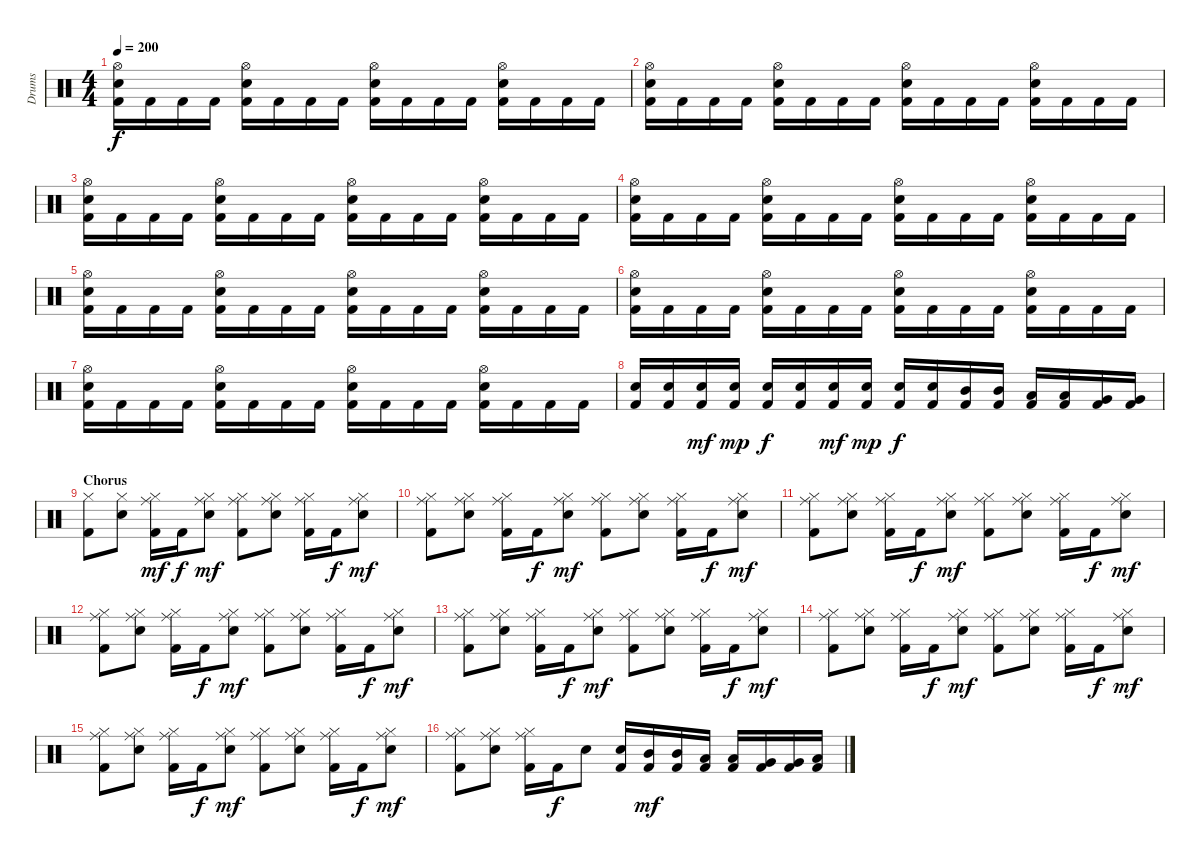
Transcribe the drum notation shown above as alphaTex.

\track ("Drums" "Drums") {instrument percussion}
\staff {score}
\articulation defaults
\ts (4 4)
\tempo 200
\clef neutral
\ks c
("Hi-Hat (open)" "Snare (hit) 2" "Kick (hit) 2").16{dy f} "Kick (hit) 2".16 "Kick (hit) 2".16 "Kick (hit) 2".16 ("Hi-Hat (open)" "Snare (hit) 2" "Kick (hit) 2").16 "Kick (hit) 2".16 "Kick (hit) 2".16 "Kick (hit) 2".16 ("Hi-Hat (open)" "Snare (hit) 2" "Kick (hit) 2").16 "Kick (hit) 2".16 "Kick (hit) 2".16 "Kick (hit) 2".16 ("Hi-Hat (open)" "Snare (hit) 2" "Kick (hit) 2").16 "Kick (hit) 2".16 "Kick (hit) 2".16 "Kick (hit) 2".16 |
("Hi-Hat (open)" "Snare (hit) 2" "Kick (hit) 2").16 "Kick (hit) 2".16 "Kick (hit) 2".16 "Kick (hit) 2".16 ("Hi-Hat (open)" "Snare (hit) 2" "Kick (hit) 2").16 "Kick (hit) 2".16 "Kick (hit) 2".16 "Kick (hit) 2".16 ("Hi-Hat (open)" "Snare (hit) 2" "Kick (hit) 2").16 "Kick (hit) 2".16 "Kick (hit) 2".16 "Kick (hit) 2".16 ("Hi-Hat (open)" "Snare (hit) 2" "Kick (hit) 2").16 "Kick (hit) 2".16 "Kick (hit) 2".16 "Kick (hit) 2".16 |
("Hi-Hat (open)" "Snare (hit) 2" "Kick (hit) 2").16 "Kick (hit) 2".16 "Kick (hit) 2".16 "Kick (hit) 2".16 ("Hi-Hat (open)" "Snare (hit) 2" "Kick (hit) 2").16 "Kick (hit) 2".16 "Kick (hit) 2".16 "Kick (hit) 2".16 ("Hi-Hat (open)" "Snare (hit) 2" "Kick (hit) 2").16 "Kick (hit) 2".16 "Kick (hit) 2".16 "Kick (hit) 2".16 ("Hi-Hat (open)" "Snare (hit) 2" "Kick (hit) 2").16 "Kick (hit) 2".16 "Kick (hit) 2".16 "Kick (hit) 2".16 |
("Hi-Hat (open)" "Snare (hit) 2" "Kick (hit) 2").16 "Kick (hit) 2".16 "Kick (hit) 2".16 "Kick (hit) 2".16 ("Hi-Hat (open)" "Snare (hit) 2" "Kick (hit) 2").16 "Kick (hit) 2".16 "Kick (hit) 2".16 "Kick (hit) 2".16 ("Hi-Hat (open)" "Snare (hit) 2" "Kick (hit) 2").16 "Kick (hit) 2".16 "Kick (hit) 2".16 "Kick (hit) 2".16 ("Hi-Hat (open)" "Snare (hit) 2" "Kick (hit) 2").16 "Kick (hit) 2".16 "Kick (hit) 2".16 "Kick (hit) 2".16 |
("Hi-Hat (open)" "Snare (hit) 2" "Kick (hit) 2").16 "Kick (hit) 2".16 "Kick (hit) 2".16 "Kick (hit) 2".16 ("Hi-Hat (open)" "Snare (hit) 2" "Kick (hit) 2").16 "Kick (hit) 2".16 "Kick (hit) 2".16 "Kick (hit) 2".16 ("Hi-Hat (open)" "Snare (hit) 2" "Kick (hit) 2").16 "Kick (hit) 2".16 "Kick (hit) 2".16 "Kick (hit) 2".16 ("Hi-Hat (open)" "Snare (hit) 2" "Kick (hit) 2").16 "Kick (hit) 2".16 "Kick (hit) 2".16 "Kick (hit) 2".16 |
("Hi-Hat (open)" "Snare (hit) 2" "Kick (hit) 2").16 "Kick (hit) 2".16 "Kick (hit) 2".16 "Kick (hit) 2".16 ("Hi-Hat (open)" "Snare (hit) 2" "Kick (hit) 2").16 "Kick (hit) 2".16 "Kick (hit) 2".16 "Kick (hit) 2".16 ("Hi-Hat (open)" "Snare (hit) 2" "Kick (hit) 2").16 "Kick (hit) 2".16 "Kick (hit) 2".16 "Kick (hit) 2".16 ("Hi-Hat (open)" "Snare (hit) 2" "Kick (hit) 2").16 "Kick (hit) 2".16 "Kick (hit) 2".16 "Kick (hit) 2".16 |
("Hi-Hat (open)" "Snare (hit) 2" "Kick (hit) 2").16 "Kick (hit) 2".16 "Kick (hit) 2".16 "Kick (hit) 2".16 ("Hi-Hat (open)" "Snare (hit) 2" "Kick (hit) 2").16 "Kick (hit) 2".16 "Kick (hit) 2".16 "Kick (hit) 2".16 ("Hi-Hat (open)" "Snare (hit) 2" "Kick (hit) 2").16 "Kick (hit) 2".16 "Kick (hit) 2".16 "Kick (hit) 2".16 ("Hi-Hat (open)" "Snare (hit) 2" "Kick (hit) 2").16 "Kick (hit) 2".16 "Kick (hit) 2".16 "Kick (hit) 2".16 |
("Snare (hit) 2" "Kick (hit) 2").16 ("Snare (hit) 2" "Kick (hit) 2").16 ("Snare (hit) 2" "Kick (hit) 2").16{dy mf} ("Snare (hit) 2" "Kick (hit) 2").16{dy mp} ("Snare (hit) 2" "Kick (hit) 2").16{dy f} ("Snare (hit) 2" "Kick (hit) 2").16 ("Snare (hit) 2" "Kick (hit) 2").16{dy mf} ("Snare (hit) 2" "Kick (hit) 2").16{dy mp} ("Snare (hit) 2" "Kick (hit) 2").16{dy f} ("Snare (hit) 2" "Kick (hit) 2").16 ("Mid Tom (hit)" "Kick (hit) 2").16 ("Mid Tom (hit)" "Kick (hit) 2").16 ("Low Tom (hit)" "Kick (hit) 2").16 ("Low Tom (hit)" "Kick (hit) 2").16 ("Very Low Tom (hit)" "Kick (hit) 2").16 ("Very Low Tom (hit)" "Kick (hit) 2").16 |
\section ("" "Chorus")
("Hi-Hat (closed)" "Kick (hit) 2").8 ("Hi-Hat (closed)" "Snare (hit) 2").8 ("Hi-Hat (closed)" "Ride (middle)" "Kick (hit) 2").16{dy mf} "Kick (hit) 2".16{dy f} ("Hi-Hat (closed)" "Ride (middle)" "Snare (hit) 2").8{dy mf} ("Hi-Hat (closed)" "Ride (middle)" "Kick (hit) 2").8 ("Hi-Hat (closed)" "Ride (middle)" "Snare (hit) 2").8 ("Hi-Hat (closed)" "Ride (middle)" "Kick (hit) 2").16 "Kick (hit) 2".16{dy f} ("Hi-Hat (closed)" "Ride (middle)" "Snare (hit) 2").8{dy mf} |
("Hi-Hat (closed)" "Ride (middle)" "Kick (hit) 2").8 ("Hi-Hat (closed)" "Ride (middle)" "Snare (hit) 2").8 ("Hi-Hat (closed)" "Ride (middle)" "Kick (hit) 2").16 "Kick (hit) 2".16{dy f} ("Hi-Hat (closed)" "Ride (middle)" "Snare (hit) 2").8{dy mf} ("Hi-Hat (closed)" "Ride (middle)" "Kick (hit) 2").8 ("Hi-Hat (closed)" "Ride (middle)" "Snare (hit) 2").8 ("Hi-Hat (closed)" "Ride (middle)" "Kick (hit) 2").16 "Kick (hit) 2".16{dy f} ("Hi-Hat (closed)" "Ride (middle)" "Snare (hit) 2").8{dy mf} |
("Hi-Hat (closed)" "Ride (middle)" "Kick (hit) 2").8 ("Hi-Hat (closed)" "Ride (middle)" "Snare (hit) 2").8 ("Hi-Hat (closed)" "Ride (middle)" "Kick (hit) 2").16 "Kick (hit) 2".16{dy f} ("Hi-Hat (closed)" "Ride (middle)" "Snare (hit) 2").8{dy mf} ("Hi-Hat (closed)" "Ride (middle)" "Kick (hit) 2").8 ("Hi-Hat (closed)" "Ride (middle)" "Snare (hit) 2").8 ("Hi-Hat (closed)" "Ride (middle)" "Kick (hit) 2").16 "Kick (hit) 2".16{dy f} ("Hi-Hat (closed)" "Ride (middle)" "Snare (hit) 2").8{dy mf} |
("Hi-Hat (closed)" "Ride (middle)" "Kick (hit) 2").8 ("Hi-Hat (closed)" "Ride (middle)" "Snare (hit) 2").8 ("Hi-Hat (closed)" "Ride (middle)" "Kick (hit) 2").16 "Kick (hit) 2".16{dy f} ("Hi-Hat (closed)" "Ride (middle)" "Snare (hit) 2").8{dy mf} ("Hi-Hat (closed)" "Ride (middle)" "Kick (hit) 2").8 ("Hi-Hat (closed)" "Ride (middle)" "Snare (hit) 2").8 ("Hi-Hat (closed)" "Ride (middle)" "Kick (hit) 2").16 "Kick (hit) 2".16{dy f} ("Hi-Hat (closed)" "Ride (middle)" "Snare (hit) 2").8{dy mf} |
("Hi-Hat (closed)" "Ride (middle)" "Kick (hit) 2").8 ("Hi-Hat (closed)" "Ride (middle)" "Snare (hit) 2").8 ("Hi-Hat (closed)" "Ride (middle)" "Kick (hit) 2").16 "Kick (hit) 2".16{dy f} ("Hi-Hat (closed)" "Ride (middle)" "Snare (hit) 2").8{dy mf} ("Hi-Hat (closed)" "Ride (middle)" "Kick (hit) 2").8 ("Hi-Hat (closed)" "Ride (middle)" "Snare (hit) 2").8 ("Hi-Hat (closed)" "Ride (middle)" "Kick (hit) 2").16 "Kick (hit) 2".16{dy f} ("Hi-Hat (closed)" "Ride (middle)" "Snare (hit) 2").8{dy mf} |
("Hi-Hat (closed)" "Ride (middle)" "Kick (hit) 2").8 ("Hi-Hat (closed)" "Ride (middle)" "Snare (hit) 2").8 ("Hi-Hat (closed)" "Ride (middle)" "Kick (hit) 2").16 "Kick (hit) 2".16{dy f} ("Hi-Hat (closed)" "Ride (middle)" "Snare (hit) 2").8{dy mf} ("Hi-Hat (closed)" "Ride (middle)" "Kick (hit) 2").8 ("Hi-Hat (closed)" "Ride (middle)" "Snare (hit) 2").8 ("Hi-Hat (closed)" "Ride (middle)" "Kick (hit) 2").16 "Kick (hit) 2".16{dy f} ("Hi-Hat (closed)" "Ride (middle)" "Snare (hit) 2").8{dy mf} |
("Hi-Hat (closed)" "Ride (middle)" "Kick (hit) 2").8 ("Hi-Hat (closed)" "Ride (middle)" "Snare (hit) 2").8 ("Hi-Hat (closed)" "Ride (middle)" "Kick (hit) 2").16 "Kick (hit) 2".16{dy f} ("Hi-Hat (closed)" "Ride (middle)" "Snare (hit) 2").8{dy mf} ("Hi-Hat (closed)" "Ride (middle)" "Kick (hit) 2").8 ("Hi-Hat (closed)" "Ride (middle)" "Snare (hit) 2").8 ("Hi-Hat (closed)" "Ride (middle)" "Kick (hit) 2").16 "Kick (hit) 2".16{dy f} ("Hi-Hat (closed)" "Ride (middle)" "Snare (hit) 2").8{dy mf} |
("Hi-Hat (closed)" "Ride (middle)" "Kick (hit) 2").8 ("Hi-Hat (closed)" "Ride (middle)" "Snare (hit) 2").8 ("Hi-Hat (closed)" "Ride (middle)" "Kick (hit) 2").16 "Kick (hit) 2".16{dy f} "Snare (hit) 2".8 ("Snare (hit) 2" "Kick (hit) 2").16 ("Mid Tom (hit)" "Kick (hit) 2").16{dy mf} ("Mid Tom (hit)" "Kick (hit) 2").16 ("Low Tom (hit)" "Kick (hit) 2").16 ("Low Tom (hit)" "Kick (hit) 2").16 ("Very Low Tom (hit)" "Kick (hit) 2").16 ("Very Low Tom (hit)" "Kick (hit) 2").16 ("Low Floor Tom (hit)" "Kick (hit) 2").16
